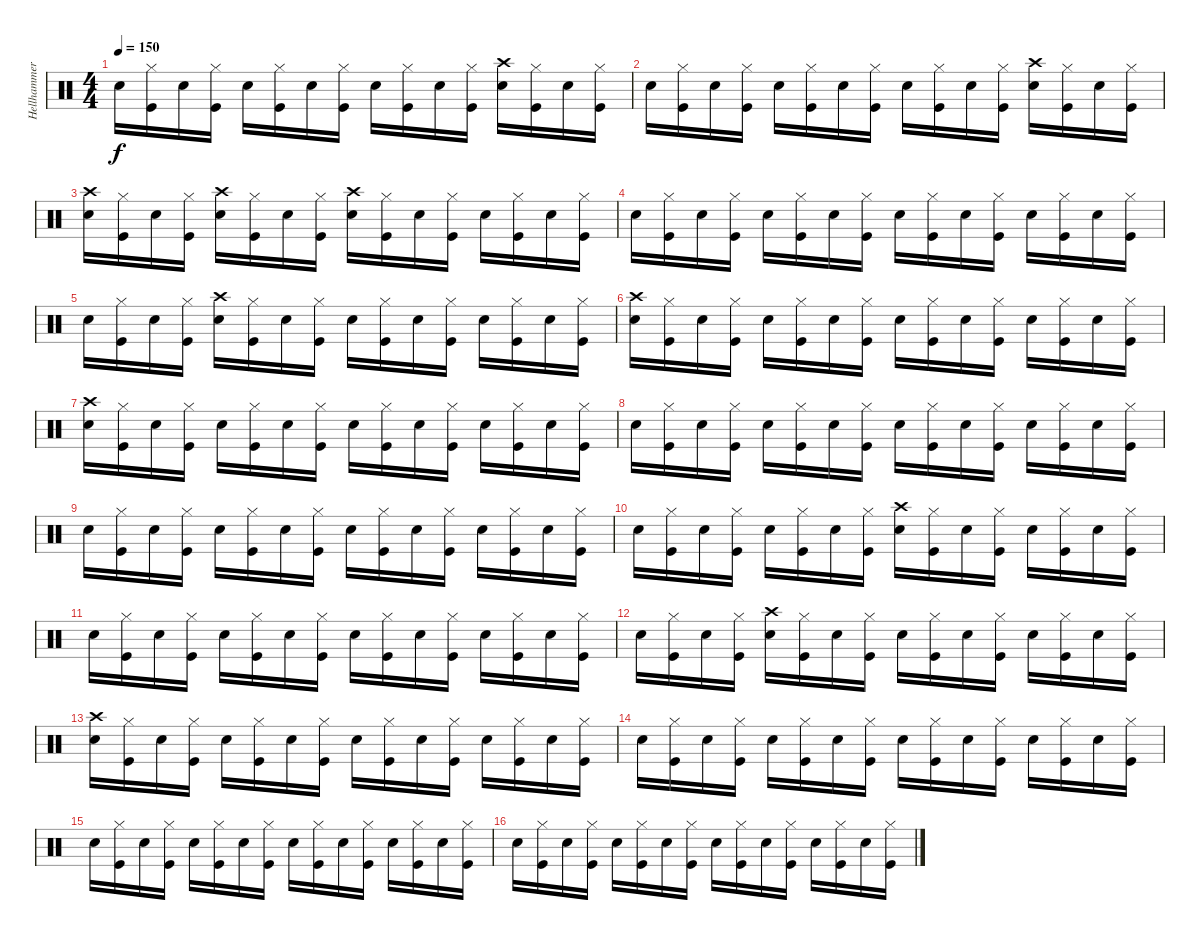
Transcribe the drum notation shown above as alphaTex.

\track ("Hellhammer" "Hellhammer") {instrument percussion}
\staff {score}
\articulation defaults
\ts (4 4)
\tempo 150
\clef neutral
\ks c "Snare (hit) 2".16{dy f}
("Kick (hit)" "Hi-Hat (closed)").16 "Snare (hit) 2".16 ("Kick (hit)" "Hi-Hat (closed)").16 "Snare (hit) 2".16 ("Kick (hit)" "Hi-Hat (closed)").16 "Snare (hit) 2".16 ("Kick (hit)" "Hi-Hat (closed)").16 "Snare (hit) 2".16 ("Kick (hit)" "Hi-Hat (closed)").16 "Snare (hit) 2".16 ("Kick (hit)" "Hi-Hat (closed)").16 ("Snare (hit) 2" "Crash high (hit)").16 ("Kick (hit)" "Hi-Hat (closed)").16 "Snare (hit) 2".16 ("Kick (hit)" "Hi-Hat (closed)").16 |
"Snare (hit) 2".16 ("Kick (hit)" "Hi-Hat (closed)").16 "Snare (hit) 2".16 ("Kick (hit)" "Hi-Hat (closed)").16 "Snare (hit) 2".16 ("Kick (hit)" "Hi-Hat (closed)").16 "Snare (hit) 2".16 ("Kick (hit)" "Hi-Hat (closed)").16 "Snare (hit) 2".16 ("Kick (hit)" "Hi-Hat (closed)").16 "Snare (hit) 2".16 ("Kick (hit)" "Hi-Hat (closed)").16 ("Snare (hit) 2" "Crash high (hit)").16 ("Kick (hit)" "Hi-Hat (closed)").16 "Snare (hit) 2".16 ("Kick (hit)" "Hi-Hat (closed)").16 |
("Snare (hit) 2" "Crash high (hit)").16 ("Kick (hit)" "Hi-Hat (closed)").16 "Snare (hit) 2".16 ("Kick (hit)" "Hi-Hat (closed)").16 ("Snare (hit) 2" "Crash high (hit)").16 ("Kick (hit)" "Hi-Hat (closed)").16 "Snare (hit) 2".16 ("Kick (hit)" "Hi-Hat (closed)").16 ("Snare (hit) 2" "Crash high (hit)").16 ("Kick (hit)" "Hi-Hat (closed)").16 "Snare (hit) 2".16 ("Kick (hit)" "Hi-Hat (closed)").16 "Snare (hit) 2".16 ("Kick (hit)" "Hi-Hat (closed)").16 "Snare (hit) 2".16 ("Kick (hit)" "Hi-Hat (closed)").16 |
"Snare (hit) 2".16 ("Kick (hit)" "Hi-Hat (closed)").16 "Snare (hit) 2".16 ("Kick (hit)" "Hi-Hat (closed)").16 "Snare (hit) 2".16 ("Kick (hit)" "Hi-Hat (closed)").16 "Snare (hit) 2".16 ("Kick (hit)" "Hi-Hat (closed)").16 "Snare (hit) 2".16 ("Kick (hit)" "Hi-Hat (closed)").16 "Snare (hit) 2".16 ("Kick (hit)" "Hi-Hat (closed)").16 "Snare (hit) 2".16 ("Kick (hit)" "Hi-Hat (closed)").16 "Snare (hit) 2".16 ("Kick (hit)" "Hi-Hat (closed)").16 |
"Snare (hit) 2".16 ("Kick (hit)" "Hi-Hat (closed)").16 "Snare (hit) 2".16 ("Kick (hit)" "Hi-Hat (closed)").16 ("Snare (hit) 2" "Crash high (hit)").16 ("Kick (hit)" "Hi-Hat (closed)").16 "Snare (hit) 2".16 ("Kick (hit)" "Hi-Hat (closed)").16 "Snare (hit) 2".16 ("Kick (hit)" "Hi-Hat (closed)").16 "Snare (hit) 2".16 ("Kick (hit)" "Hi-Hat (closed)").16 "Snare (hit) 2".16 ("Kick (hit)" "Hi-Hat (closed)").16 "Snare (hit) 2".16 ("Kick (hit)" "Hi-Hat (closed)").16 |
("Snare (hit) 2" "Crash high (hit)").16 ("Kick (hit)" "Hi-Hat (closed)").16 "Snare (hit) 2".16 ("Kick (hit)" "Hi-Hat (closed)").16 "Snare (hit) 2".16 ("Kick (hit)" "Hi-Hat (closed)").16 "Snare (hit) 2".16 ("Kick (hit)" "Hi-Hat (closed)").16 "Snare (hit) 2".16 ("Kick (hit)" "Hi-Hat (closed)").16 "Snare (hit) 2".16 ("Kick (hit)" "Hi-Hat (closed)").16 "Snare (hit) 2".16 ("Kick (hit)" "Hi-Hat (closed)").16 "Snare (hit) 2".16 ("Kick (hit)" "Hi-Hat (closed)").16 |
("Snare (hit) 2" "Crash high (hit)").16 ("Kick (hit)" "Hi-Hat (closed)").16 "Snare (hit) 2".16 ("Kick (hit)" "Hi-Hat (closed)").16 "Snare (hit) 2".16 ("Kick (hit)" "Hi-Hat (closed)").16 "Snare (hit) 2".16 ("Kick (hit)" "Hi-Hat (closed)").16 "Snare (hit) 2".16 ("Kick (hit)" "Hi-Hat (closed)").16 "Snare (hit) 2".16 ("Kick (hit)" "Hi-Hat (closed)").16 "Snare (hit) 2".16 ("Kick (hit)" "Hi-Hat (closed)").16 "Snare (hit) 2".16 ("Kick (hit)" "Hi-Hat (closed)").16 |
"Snare (hit) 2".16 ("Kick (hit)" "Hi-Hat (closed)").16 "Snare (hit) 2".16 ("Kick (hit)" "Hi-Hat (closed)").16 "Snare (hit) 2".16 ("Kick (hit)" "Hi-Hat (closed)").16 "Snare (hit) 2".16 ("Kick (hit)" "Hi-Hat (closed)").16 "Snare (hit) 2".16 ("Kick (hit)" "Hi-Hat (closed)").16 "Snare (hit) 2".16 ("Kick (hit)" "Hi-Hat (closed)").16 "Snare (hit) 2".16 ("Kick (hit)" "Hi-Hat (closed)").16 "Snare (hit) 2".16 ("Kick (hit)" "Hi-Hat (closed)").16 |
"Snare (hit) 2".16 ("Kick (hit)" "Hi-Hat (closed)").16 "Snare (hit) 2".16 ("Kick (hit)" "Hi-Hat (closed)").16 "Snare (hit) 2".16 ("Kick (hit)" "Hi-Hat (closed)").16 "Snare (hit) 2".16 ("Kick (hit)" "Hi-Hat (closed)").16 "Snare (hit) 2".16 ("Kick (hit)" "Hi-Hat (closed)").16 "Snare (hit) 2".16 ("Kick (hit)" "Hi-Hat (closed)").16 "Snare (hit) 2".16 ("Kick (hit)" "Hi-Hat (closed)").16 "Snare (hit) 2".16 ("Kick (hit)" "Hi-Hat (closed)").16 |
"Snare (hit) 2".16 ("Kick (hit)" "Hi-Hat (closed)").16 "Snare (hit) 2".16 ("Kick (hit)" "Hi-Hat (closed)").16 "Snare (hit) 2".16 ("Kick (hit)" "Hi-Hat (closed)").16 "Snare (hit) 2".16 ("Kick (hit)" "Hi-Hat (closed)").16 ("Snare (hit) 2" "Crash high (hit)").16 ("Kick (hit)" "Hi-Hat (closed)").16 "Snare (hit) 2".16 ("Kick (hit)" "Hi-Hat (closed)").16 "Snare (hit) 2".16 ("Kick (hit)" "Hi-Hat (closed)").16 "Snare (hit) 2".16 ("Kick (hit)" "Hi-Hat (closed)").16 |
"Snare (hit) 2".16 ("Kick (hit)" "Hi-Hat (closed)").16 "Snare (hit) 2".16 ("Kick (hit)" "Hi-Hat (closed)").16 "Snare (hit) 2".16 ("Kick (hit)" "Hi-Hat (closed)").16 "Snare (hit) 2".16 ("Kick (hit)" "Hi-Hat (closed)").16 "Snare (hit) 2".16 ("Kick (hit)" "Hi-Hat (closed)").16 "Snare (hit) 2".16 ("Kick (hit)" "Hi-Hat (closed)").16 "Snare (hit) 2".16 ("Kick (hit)" "Hi-Hat (closed)").16 "Snare (hit) 2".16 ("Kick (hit)" "Hi-Hat (closed)").16 |
"Snare (hit) 2".16 ("Kick (hit)" "Hi-Hat (closed)").16 "Snare (hit) 2".16 ("Kick (hit)" "Hi-Hat (closed)").16 ("Snare (hit) 2" "Crash high (hit)").16 ("Kick (hit)" "Hi-Hat (closed)").16 "Snare (hit) 2".16 ("Kick (hit)" "Hi-Hat (closed)").16 "Snare (hit) 2".16 ("Kick (hit)" "Hi-Hat (closed)").16 "Snare (hit) 2".16 ("Kick (hit)" "Hi-Hat (closed)").16 "Snare (hit) 2".16 ("Kick (hit)" "Hi-Hat (closed)").16 "Snare (hit) 2".16 ("Kick (hit)" "Hi-Hat (closed)").16 |
("Snare (hit) 2" "Crash high (hit)").16 ("Kick (hit)" "Hi-Hat (closed)").16 "Snare (hit) 2".16 ("Kick (hit)" "Hi-Hat (closed)").16 "Snare (hit) 2".16 ("Kick (hit)" "Hi-Hat (closed)").16 "Snare (hit) 2".16 ("Kick (hit)" "Hi-Hat (closed)").16 "Snare (hit) 2".16 ("Kick (hit)" "Hi-Hat (closed)").16 "Snare (hit) 2".16 ("Kick (hit)" "Hi-Hat (closed)").16 "Snare (hit) 2".16 ("Kick (hit)" "Hi-Hat (closed)").16 "Snare (hit) 2".16 ("Kick (hit)" "Hi-Hat (closed)").16 |
"Snare (hit) 2".16 ("Kick (hit)" "Hi-Hat (closed)").16 "Snare (hit) 2".16 ("Kick (hit)" "Hi-Hat (closed)").16 "Snare (hit) 2".16 ("Kick (hit)" "Hi-Hat (closed)").16 "Snare (hit) 2".16 ("Kick (hit)" "Hi-Hat (closed)").16 "Snare (hit) 2".16 ("Kick (hit)" "Hi-Hat (closed)").16 "Snare (hit) 2".16 ("Kick (hit)" "Hi-Hat (closed)").16 "Snare (hit) 2".16 ("Kick (hit)" "Hi-Hat (closed)").16 "Snare (hit) 2".16 ("Kick (hit)" "Hi-Hat (closed)").16 |
"Snare (hit) 2".16 ("Kick (hit)" "Hi-Hat (closed)").16 "Snare (hit) 2".16 ("Kick (hit)" "Hi-Hat (closed)").16 "Snare (hit) 2".16 ("Kick (hit)" "Hi-Hat (closed)").16 "Snare (hit) 2".16 ("Kick (hit)" "Hi-Hat (closed)").16 "Snare (hit) 2".16 ("Kick (hit)" "Hi-Hat (closed)").16 "Snare (hit) 2".16 ("Kick (hit)" "Hi-Hat (closed)").16 "Snare (hit) 2".16 ("Kick (hit)" "Hi-Hat (closed)").16 "Snare (hit) 2".16 ("Kick (hit)" "Hi-Hat (closed)").16 |
"Snare (hit) 2".16 ("Kick (hit)" "Hi-Hat (closed)").16 "Snare (hit) 2".16 ("Kick (hit)" "Hi-Hat (closed)").16 "Snare (hit) 2".16 ("Kick (hit)" "Hi-Hat (closed)").16 "Snare (hit) 2".16 ("Kick (hit)" "Hi-Hat (closed)").16 "Snare (hit) 2".16 ("Kick (hit)" "Hi-Hat (closed)").16 "Snare (hit) 2".16 ("Kick (hit)" "Hi-Hat (closed)").16 "Snare (hit) 2".16 ("Kick (hit)" "Hi-Hat (closed)").16 "Snare (hit) 2".16 ("Kick (hit)" "Hi-Hat (closed)").16
